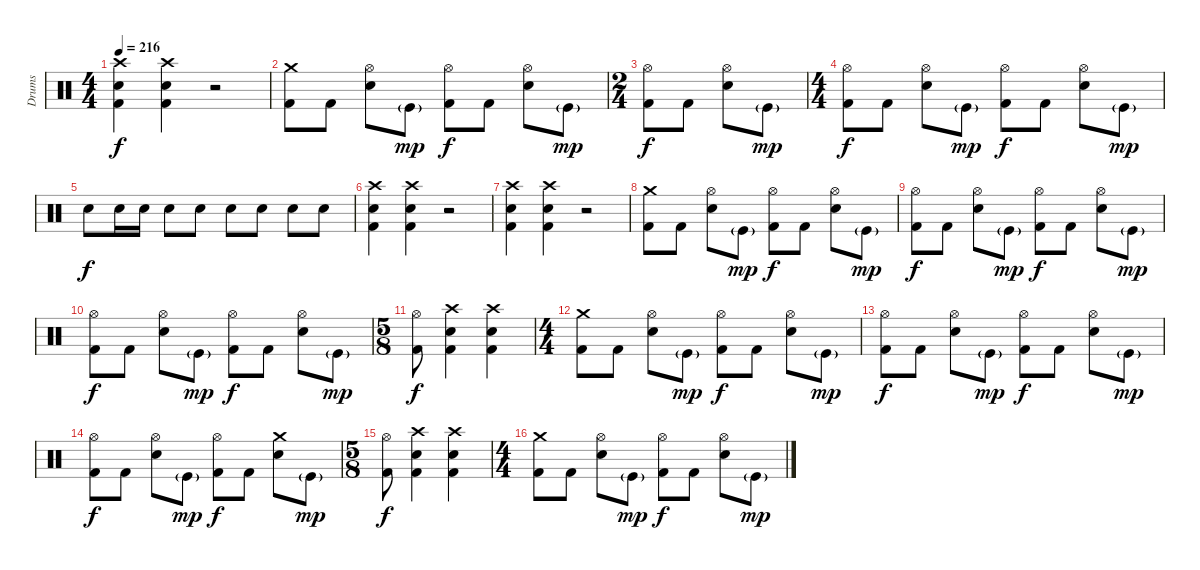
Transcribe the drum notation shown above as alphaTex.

\track ("Drums" "Drums") {instrument percussion}
\staff {score}
\articulation defaults
\ts (4 4)
\tempo 216
\clef neutral
\ks c
("Crash high (hit)" "Snare (hit) 2" "Kick (hit) 2").4{dy f} ("Crash high (hit)" "Snare (hit) 2" "Kick (hit) 2").4 r.2 |
("Crash medium (hit)" "Kick (hit) 2").8 "Kick (hit) 2".8 ("Hi-Hat (open)" "Snare (hit) 2").8 "Kick (hit)"{g}.8{dy mp} ("Hi-Hat (open)" "Kick (hit) 2").8{dy f} "Kick (hit) 2".8 ("Hi-Hat (open)" "Snare (hit) 2").8 "Kick (hit)"{g}.8{dy mp} |
\ts (2 4)
("Hi-Hat (open)" "Kick (hit) 2").8{dy f} "Kick (hit) 2".8 ("Hi-Hat (open)" "Snare (hit) 2").8 "Kick (hit)"{g}.8{dy mp} |
\ts (4 4)
("Hi-Hat (open)" "Kick (hit) 2").8{dy f} "Kick (hit) 2".8 ("Hi-Hat (open)" "Snare (hit) 2").8 "Kick (hit)"{g}.8{dy mp} ("Hi-Hat (open)" "Kick (hit) 2").8{dy f} "Kick (hit) 2".8 ("Hi-Hat (open)" "Snare (hit) 2").8 "Kick (hit)"{g}.8{dy mp} |
"Snare (hit) 2".8{dy f} "Snare (hit) 2".16 "Snare (hit) 2".16 "Snare (hit) 2".8 "Snare (hit) 2".8 "Snare (hit) 2".8 "Snare (hit) 2".8 "Snare (hit) 2".8 "Snare (hit) 2".8 |
("Crash high (hit)" "Snare (hit) 2" "Kick (hit) 2").4 ("Crash high (hit)" "Snare (hit) 2" "Kick (hit) 2").4 r.2 |
("Crash high (hit)" "Snare (hit) 2" "Kick (hit) 2").4 ("Crash high (hit)" "Snare (hit) 2" "Kick (hit) 2").4 r.2 |
("Crash medium (hit)" "Kick (hit) 2").8 "Kick (hit) 2".8 ("Hi-Hat (open)" "Snare (hit) 2").8 "Kick (hit)"{g}.8{dy mp} ("Hi-Hat (open)" "Kick (hit) 2").8{dy f} "Kick (hit) 2".8 ("Hi-Hat (open)" "Snare (hit) 2").8 "Kick (hit)"{g}.8{dy mp} |
("Hi-Hat (open)" "Kick (hit) 2").8{dy f} "Kick (hit) 2".8 ("Hi-Hat (open)" "Snare (hit) 2").8 "Kick (hit)"{g}.8{dy mp} ("Hi-Hat (open)" "Kick (hit) 2").8{dy f} "Kick (hit) 2".8 ("Hi-Hat (open)" "Snare (hit) 2").8 "Kick (hit)"{g}.8{dy mp} |
("Hi-Hat (open)" "Kick (hit) 2").8{dy f} "Kick (hit) 2".8 ("Hi-Hat (open)" "Snare (hit) 2").8 "Kick (hit)"{g}.8{dy mp} ("Hi-Hat (open)" "Kick (hit) 2").8{dy f} "Kick (hit) 2".8 ("Hi-Hat (open)" "Snare (hit) 2").8 "Kick (hit)"{g}.8{dy mp} |
\ts (5 8)
("Hi-Hat (open)" "Kick (hit) 2").8{dy f} ("Crash high (hit)" "Snare (hit) 2" "Kick (hit) 2").4 ("Crash high (hit)" "Snare (hit) 2" "Kick (hit) 2").4 |
\ts (4 4)
("Crash medium (hit)" "Kick (hit) 2").8 "Kick (hit) 2".8 ("Hi-Hat (open)" "Snare (hit) 2").8 "Kick (hit)"{g}.8{dy mp} ("Hi-Hat (open)" "Kick (hit) 2").8{dy f} "Kick (hit) 2".8 ("Hi-Hat (open)" "Snare (hit) 2").8 "Kick (hit)"{g}.8{dy mp} |
("Hi-Hat (open)" "Kick (hit) 2").8{dy f} "Kick (hit) 2".8 ("Hi-Hat (open)" "Snare (hit) 2").8 "Kick (hit)"{g}.8{dy mp} ("Hi-Hat (open)" "Kick (hit) 2").8{dy f} "Kick (hit) 2".8 ("Hi-Hat (open)" "Snare (hit) 2").8 "Kick (hit)"{g}.8{dy mp} |
("Hi-Hat (open)" "Kick (hit) 2").8{dy f} "Kick (hit) 2".8 ("Hi-Hat (open)" "Snare (hit) 2").8 "Kick (hit)"{g}.8{dy mp} ("Hi-Hat (open)" "Kick (hit) 2").8{dy f} "Kick (hit) 2".8 ("Crash medium (hit)" "Snare (hit) 2").8 "Kick (hit)"{g}.8{dy mp} |
\ts (5 8)
("Hi-Hat (open)" "Kick (hit) 2").8{dy f} ("Crash high (hit)" "Snare (hit) 2" "Kick (hit) 2").4 ("Crash high (hit)" "Snare (hit) 2" "Kick (hit) 2").4 |
\ts (4 4)
("Crash medium (hit)" "Kick (hit) 2").8 "Kick (hit) 2".8 ("Hi-Hat (open)" "Snare (hit) 2").8 "Kick (hit)"{g}.8{dy mp} ("Hi-Hat (open)" "Kick (hit) 2").8{dy f} "Kick (hit) 2".8 ("Hi-Hat (open)" "Snare (hit) 2").8 "Kick (hit)"{g}.8{dy mp}
